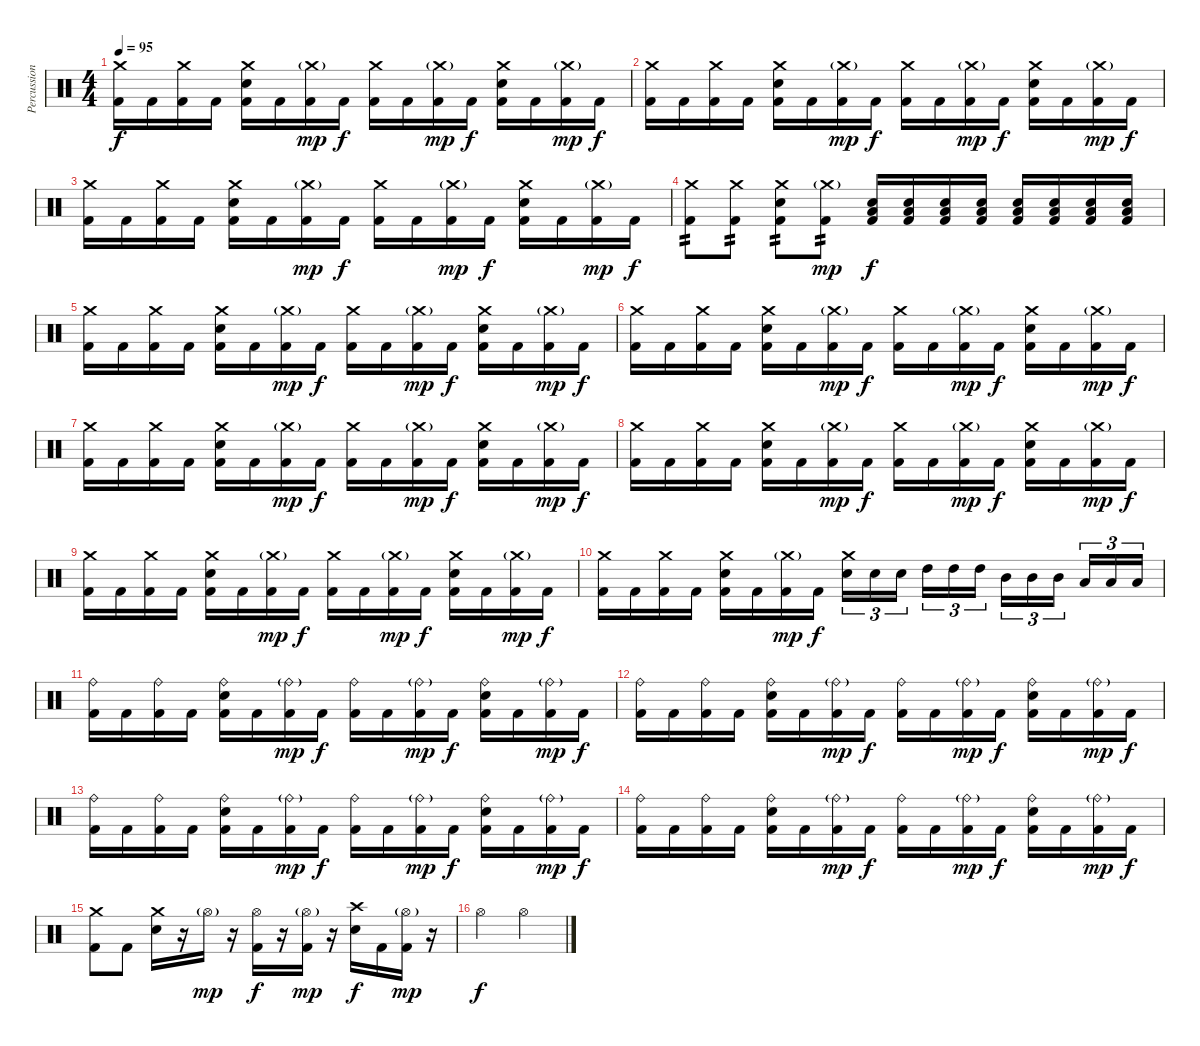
\track ("Percussions" "Percussion") {instrument percussion}
\staff {score}
\articulation defaults
\ts (4 4)
\tempo 95
\clef neutral
\ks c
("Crash medium (hit)" "Kick (hit) 2").16{dy f} "Kick (hit) 2".16 ("Crash medium (hit)" "Kick (hit) 2").16 "Kick (hit) 2".16 ("Crash medium (hit)" "Electric Snare (hit)" "Kick (hit) 2").16 "Kick (hit) 2".16 ("Crash medium (hit)"{g} "Kick (hit) 2").16{dy mp} "Kick (hit) 2".16{dy f} ("Crash medium (hit)" "Kick (hit) 2").16 "Kick (hit) 2".16 ("Crash medium (hit)"{g} "Kick (hit) 2").16{dy mp} "Kick (hit) 2".16{dy f} ("Crash medium (hit)" "Electric Snare (hit)" "Kick (hit) 2").16 "Kick (hit) 2".16 ("Crash medium (hit)"{g} "Kick (hit) 2").16{dy mp} "Kick (hit) 2".16{dy f} |
("Crash medium (hit)" "Kick (hit) 2").16 "Kick (hit) 2".16 ("Crash medium (hit)" "Kick (hit) 2").16 "Kick (hit) 2".16 ("Crash medium (hit)" "Electric Snare (hit)" "Kick (hit) 2").16 "Kick (hit) 2".16 ("Crash medium (hit)"{g} "Kick (hit) 2").16{dy mp} "Kick (hit) 2".16{dy f} ("Crash medium (hit)" "Kick (hit) 2").16 "Kick (hit) 2".16 ("Crash medium (hit)"{g} "Kick (hit) 2").16{dy mp} "Kick (hit) 2".16{dy f} ("Crash medium (hit)" "Electric Snare (hit)" "Kick (hit) 2").16 "Kick (hit) 2".16 ("Crash medium (hit)"{g} "Kick (hit) 2").16{dy mp} "Kick (hit) 2".16{dy f} |
("Crash medium (hit)" "Kick (hit) 2").16 "Kick (hit) 2".16 ("Crash medium (hit)" "Kick (hit) 2").16 "Kick (hit) 2".16 ("Crash medium (hit)" "Electric Snare (hit)" "Kick (hit) 2").16 "Kick (hit) 2".16 ("Crash medium (hit)"{g} "Kick (hit) 2").16{dy mp} "Kick (hit) 2".16{dy f} ("Crash medium (hit)" "Kick (hit) 2").16 "Kick (hit) 2".16 ("Crash medium (hit)"{g} "Kick (hit) 2").16{dy mp} "Kick (hit) 2".16{dy f} ("Crash medium (hit)" "Electric Snare (hit)" "Kick (hit) 2").16 "Kick (hit) 2".16 ("Crash medium (hit)"{g} "Kick (hit) 2").16{dy mp} "Kick (hit) 2".16{dy f} |
("Crash medium (hit)" "Kick (hit) 2").8{tp 2} ("Crash medium (hit)" "Kick (hit) 2").8{tp 2} ("Crash medium (hit)" "Electric Snare (hit)" "Kick (hit) 2").8{tp 2} ("Crash medium (hit)"{g} "Kick (hit) 2").8{tp 2 dy mp} ("Low Tom (hit)" "Electric Snare (hit)" "Kick (hit) 2").16{dy f} ("Low Tom (hit)" "Electric Snare (hit)" "Kick (hit) 2").16 ("Low Tom (hit)" "Electric Snare (hit)" "Kick (hit) 2").16 ("Low Tom (hit)" "Electric Snare (hit)" "Kick (hit) 2").16 ("Low Tom (hit)" "Electric Snare (hit)" "Kick (hit) 2").16 ("Low Tom (hit)" "Electric Snare (hit)" "Kick (hit) 2").16 ("Low Tom (hit)" "Electric Snare (hit)" "Kick (hit) 2").16 ("Low Tom (hit)" "Electric Snare (hit)" "Kick (hit) 2").16 |
("Crash medium (hit)" "Kick (hit) 2").16 "Kick (hit) 2".16 ("Crash medium (hit)" "Kick (hit) 2").16 "Kick (hit) 2".16 ("Crash medium (hit)" "Electric Snare (hit)" "Kick (hit) 2").16 "Kick (hit) 2".16 ("Crash medium (hit)"{g} "Kick (hit) 2").16{dy mp} "Kick (hit) 2".16{dy f} ("Crash medium (hit)" "Kick (hit) 2").16 "Kick (hit) 2".16 ("Crash medium (hit)"{g} "Kick (hit) 2").16{dy mp} "Kick (hit) 2".16{dy f} ("Crash medium (hit)" "Electric Snare (hit)" "Kick (hit) 2").16 "Kick (hit) 2".16 ("Crash medium (hit)"{g} "Kick (hit) 2").16{dy mp} "Kick (hit) 2".16{dy f} |
("Crash medium (hit)" "Kick (hit) 2").16 "Kick (hit) 2".16 ("Crash medium (hit)" "Kick (hit) 2").16 "Kick (hit) 2".16 ("Crash medium (hit)" "Electric Snare (hit)" "Kick (hit) 2").16 "Kick (hit) 2".16 ("Crash medium (hit)"{g} "Kick (hit) 2").16{dy mp} "Kick (hit) 2".16{dy f} ("Crash medium (hit)" "Kick (hit) 2").16 "Kick (hit) 2".16 ("Crash medium (hit)"{g} "Kick (hit) 2").16{dy mp} "Kick (hit) 2".16{dy f} ("Crash medium (hit)" "Electric Snare (hit)" "Kick (hit) 2").16 "Kick (hit) 2".16 ("Crash medium (hit)"{g} "Kick (hit) 2").16{dy mp} "Kick (hit) 2".16{dy f} |
("Crash medium (hit)" "Kick (hit) 2").16 "Kick (hit) 2".16 ("Crash medium (hit)" "Kick (hit) 2").16 "Kick (hit) 2".16 ("Crash medium (hit)" "Electric Snare (hit)" "Kick (hit) 2").16 "Kick (hit) 2".16 ("Crash medium (hit)"{g} "Kick (hit) 2").16{dy mp} "Kick (hit) 2".16{dy f} ("Crash medium (hit)" "Kick (hit) 2").16 "Kick (hit) 2".16 ("Crash medium (hit)"{g} "Kick (hit) 2").16{dy mp} "Kick (hit) 2".16{dy f} ("Crash medium (hit)" "Electric Snare (hit)" "Kick (hit) 2").16 "Kick (hit) 2".16 ("Crash medium (hit)"{g} "Kick (hit) 2").16{dy mp} "Kick (hit) 2".16{dy f} |
("Crash medium (hit)" "Kick (hit) 2").16 "Kick (hit) 2".16 ("Crash medium (hit)" "Kick (hit) 2").16 "Kick (hit) 2".16 ("Crash medium (hit)" "Electric Snare (hit)" "Kick (hit) 2").16 "Kick (hit) 2".16 ("Crash medium (hit)"{g} "Kick (hit) 2").16{dy mp} "Kick (hit) 2".16{dy f} ("Crash medium (hit)" "Kick (hit) 2").16 "Kick (hit) 2".16 ("Crash medium (hit)"{g} "Kick (hit) 2").16{dy mp} "Kick (hit) 2".16{dy f} ("Crash medium (hit)" "Electric Snare (hit)" "Kick (hit) 2").16 "Kick (hit) 2".16 ("Crash medium (hit)"{g} "Kick (hit) 2").16{dy mp} "Kick (hit) 2".16{dy f} |
("Crash medium (hit)" "Kick (hit) 2").16 "Kick (hit) 2".16 ("Crash medium (hit)" "Kick (hit) 2").16 "Kick (hit) 2".16 ("Crash medium (hit)" "Electric Snare (hit)" "Kick (hit) 2").16 "Kick (hit) 2".16 ("Crash medium (hit)"{g} "Kick (hit) 2").16{dy mp} "Kick (hit) 2".16{dy f} ("Crash medium (hit)" "Kick (hit) 2").16 "Kick (hit) 2".16 ("Crash medium (hit)"{g} "Kick (hit) 2").16{dy mp} "Kick (hit) 2".16{dy f} ("Crash medium (hit)" "Electric Snare (hit)" "Kick (hit) 2").16 "Kick (hit) 2".16 ("Crash medium (hit)"{g} "Kick (hit) 2").16{dy mp} "Kick (hit) 2".16{dy f} |
("Crash medium (hit)" "Kick (hit) 2").16 "Kick (hit) 2".16 ("Crash medium (hit)" "Kick (hit) 2").16 "Kick (hit) 2".16 ("Crash medium (hit)" "Electric Snare (hit)" "Kick (hit) 2").16 "Kick (hit) 2".16 ("Crash medium (hit)"{g} "Kick (hit) 2").16{dy mp} "Kick (hit) 2".16{dy f} ("Crash medium (hit)" "Electric Snare (hit)").16{tu (3 2)} "Electric Snare (hit)".16{tu (3 2)} "Electric Snare (hit)".16{tu (3 2)} "High Tom (hit)".16{tu (3 2)} "High Tom (hit)".16{tu (3 2)} "High Tom (hit)".16{tu (3 2)} "Mid Tom (hit)".16{tu (3 2)} "Mid Tom (hit)".16{tu (3 2)} "Mid Tom (hit)".16{tu (3 2)} "Low Tom (hit)".16{tu (3 2)} "Low Tom (hit)".16{tu (3 2)} "Low Tom (hit)".16{tu (3 2)} |
("Ride (bell)" "Kick (hit) 2").16 "Kick (hit) 2".16 ("Ride (bell)" "Kick (hit) 2").16 "Kick (hit) 2".16 ("Ride (bell)" "Electric Snare (hit)" "Kick (hit) 2").16 "Kick (hit) 2".16 ("Ride (bell)"{g} "Kick (hit) 2").16{dy mp} "Kick (hit) 2".16{dy f} ("Ride (bell)" "Kick (hit) 2").16 "Kick (hit) 2".16 ("Ride (bell)"{g} "Kick (hit) 2").16{dy mp} "Kick (hit) 2".16{dy f} ("Ride (bell)" "Electric Snare (hit)" "Kick (hit) 2").16 "Kick (hit) 2".16 ("Ride (bell)"{g} "Kick (hit) 2").16{dy mp} "Kick (hit) 2".16{dy f} |
("Ride (bell)" "Kick (hit) 2").16 "Kick (hit) 2".16 ("Ride (bell)" "Kick (hit) 2").16 "Kick (hit) 2".16 ("Ride (bell)" "Electric Snare (hit)" "Kick (hit) 2").16 "Kick (hit) 2".16 ("Ride (bell)"{g} "Kick (hit) 2").16{dy mp} "Kick (hit) 2".16{dy f} ("Ride (bell)" "Kick (hit) 2").16 "Kick (hit) 2".16 ("Ride (bell)"{g} "Kick (hit) 2").16{dy mp} "Kick (hit) 2".16{dy f} ("Ride (bell)" "Electric Snare (hit)" "Kick (hit) 2").16 "Kick (hit) 2".16 ("Ride (bell)"{g} "Kick (hit) 2").16{dy mp} "Kick (hit) 2".16{dy f} |
("Ride (bell)" "Kick (hit) 2").16 "Kick (hit) 2".16 ("Ride (bell)" "Kick (hit) 2").16 "Kick (hit) 2".16 ("Ride (bell)" "Electric Snare (hit)" "Kick (hit) 2").16 "Kick (hit) 2".16 ("Ride (bell)"{g} "Kick (hit) 2").16{dy mp} "Kick (hit) 2".16{dy f} ("Ride (bell)" "Kick (hit) 2").16 "Kick (hit) 2".16 ("Ride (bell)"{g} "Kick (hit) 2").16{dy mp} "Kick (hit) 2".16{dy f} ("Ride (bell)" "Electric Snare (hit)" "Kick (hit) 2").16 "Kick (hit) 2".16 ("Ride (bell)"{g} "Kick (hit) 2").16{dy mp} "Kick (hit) 2".16{dy f} |
("Ride (bell)" "Kick (hit) 2").16 "Kick (hit) 2".16 ("Ride (bell)" "Kick (hit) 2").16 "Kick (hit) 2".16 ("Ride (bell)" "Electric Snare (hit)" "Kick (hit) 2").16 "Kick (hit) 2".16 ("Ride (bell)"{g} "Kick (hit) 2").16{dy mp} "Kick (hit) 2".16{dy f} ("Ride (bell)" "Kick (hit) 2").16 "Kick (hit) 2".16 ("Ride (bell)"{g} "Kick (hit) 2").16{dy mp} "Kick (hit) 2".16{dy f} ("Ride (bell)" "Electric Snare (hit)" "Kick (hit) 2").16 "Kick (hit) 2".16 ("Ride (bell)"{g} "Kick (hit) 2").16{dy mp} "Kick (hit) 2".16{dy f} |
("Crash medium (hit)" "Kick (hit) 2").8 "Kick (hit) 2".8 ("Crash medium (hit)" "Electric Snare (hit)").16 r.16 "Hi-Hat (open)"{g}.16{dy mp} r.16 ("Hi-Hat (open)" "Kick (hit) 2").16{dy f} r.16 ("Hi-Hat (open)"{g} "Kick (hit) 2").16{dy mp} r.16 ("Crash high (hit)" "Electric Snare (hit)").16{dy f} "Kick (hit) 2".16 ("Hi-Hat (open)"{g} "Kick (hit) 2").16{dy mp} r.16 |
"Hi-Hat (open)".2{dy f} "Hi-Hat (open)".2
